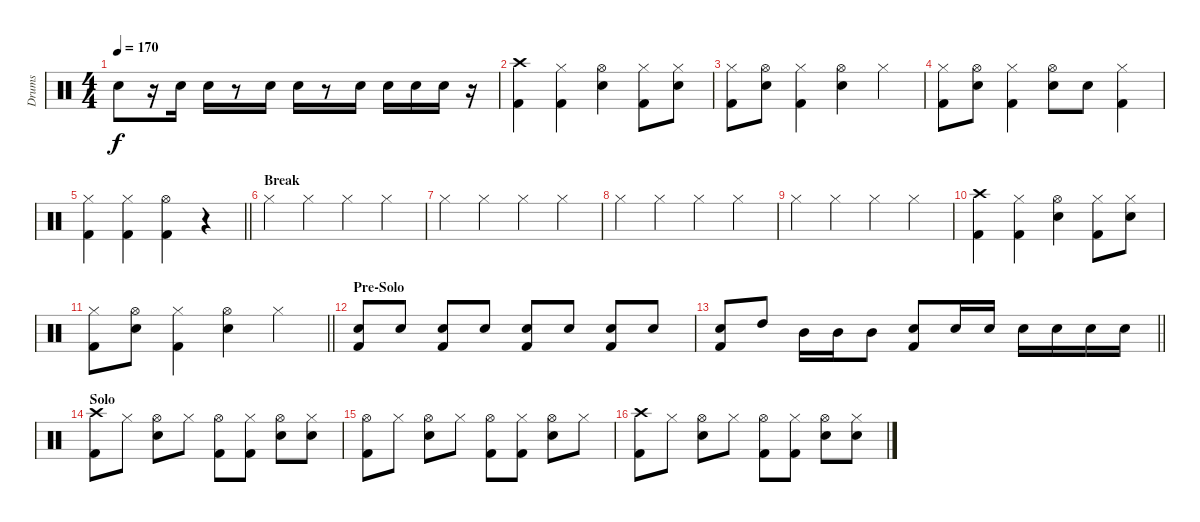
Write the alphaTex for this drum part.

\track ("Drums" "Drums") {instrument percussion}
\staff {score}
\articulation defaults
\ts (4 4)
\tempo 170
\clef neutral
\ks c "Electric Snare (hit)".8{dy f}
r.16 "Electric Snare (hit)".16 "Electric Snare (hit)".16 r.8 "Electric Snare (hit)".16 "Electric Snare (hit)".16 r.8 "Electric Snare (hit)".16 "Electric Snare (hit)".16 "Electric Snare (hit)".16 "Electric Snare (hit)".16 r.16 |
("Kick (hit) 2" "Crash high (hit)").4 ("Kick (hit) 2" "Hi-Hat (closed)").4 ("Electric Snare (hit)" "Hi-Hat (open)").4 ("Kick (hit) 2" "Hi-Hat (closed)").8 ("Electric Snare (hit)" "Hi-Hat (closed)").8 |
("Kick (hit) 2" "Hi-Hat (closed)").8 ("Electric Snare (hit)" "Hi-Hat (open)").8 ("Kick (hit) 2" "Hi-Hat (closed)").4 ("Electric Snare (hit)" "Hi-Hat (open)").4 "Hi-Hat (closed)".4 |
("Kick (hit) 2" "Hi-Hat (closed)").8 ("Electric Snare (hit)" "Hi-Hat (open)").8 ("Kick (hit) 2" "Hi-Hat (closed)").4 ("Electric Snare (hit)" "Hi-Hat (open)").8 "Electric Snare (hit)".8 ("Kick (hit) 2" "Hi-Hat (closed)").4 |
\barLineRight lightlight
("Kick (hit) 2" "Hi-Hat (closed)").4 ("Kick (hit) 2" "Hi-Hat (closed)").4 ("Kick (hit) 2" "Hi-Hat (open)").4 r.4 |
\section ("" "Break")
"Hi-Hat (closed)".4{volume 6} "Hi-Hat (closed)".4 "Hi-Hat (closed)".4 "Hi-Hat (closed)".4 |
"Hi-Hat (closed)".4 "Hi-Hat (closed)".4 "Hi-Hat (closed)".4 "Hi-Hat (closed)".4 |
"Hi-Hat (closed)".4 "Hi-Hat (closed)".4 "Hi-Hat (closed)".4 "Hi-Hat (closed)".4 |
"Hi-Hat (closed)".4 "Hi-Hat (closed)".4 "Hi-Hat (closed)".4 "Hi-Hat (closed)".4 |
("Kick (hit) 2" "Crash high (hit)").4{volume 16} ("Kick (hit) 2" "Hi-Hat (closed)").4 ("Electric Snare (hit)" "Hi-Hat (open)").4 ("Kick (hit) 2" "Hi-Hat (closed)").8 ("Electric Snare (hit)" "Hi-Hat (closed)").8 |
\barLineRight lightlight
("Kick (hit) 2" "Hi-Hat (closed)").8 ("Electric Snare (hit)" "Hi-Hat (open)").8 ("Kick (hit) 2" "Hi-Hat (closed)").4 ("Electric Snare (hit)" "Hi-Hat (open)").4 "Hi-Hat (closed)".4 |
\section ("" "Pre-Solo")
("Electric Snare (hit)" "Kick (hit) 2").8 "Electric Snare (hit)".8 ("Electric Snare (hit)" "Kick (hit) 2").8 "Electric Snare (hit)".8 ("Electric Snare (hit)" "Kick (hit) 2").8 "Electric Snare (hit)".8 ("Electric Snare (hit)" "Kick (hit) 2").8 "Electric Snare (hit)".8 |
\barLineRight lightlight
("Electric Snare (hit)" "Kick (hit) 2").8 "High Tom (hit)".8 "Mid Tom (hit)".16 "Mid Tom (hit)".16 "Mid Tom (hit)".8 ("Electric Snare (hit)" "Kick (hit) 2").8 "Electric Snare (hit)".16 "Electric Snare (hit)".16 "Electric Snare (hit)".16 "Electric Snare (hit)".16 "Electric Snare (hit)".16 "Electric Snare (hit)".16 |
\section ("" "Solo")
("Kick (hit) 2" "Crash high (hit)").8 "Hi-Hat (closed)".8 ("Electric Snare (hit)" "Hi-Hat (open)").8 "Hi-Hat (closed)".8 ("Kick (hit) 2" "Hi-Hat (open)").8 ("Kick (hit) 2" "Hi-Hat (closed)").8 ("Electric Snare (hit)" "Hi-Hat (open)").8 ("Electric Snare (hit)" "Hi-Hat (closed)").8 |
("Kick (hit) 2" "Hi-Hat (open)").8 "Hi-Hat (closed)".8 ("Electric Snare (hit)" "Hi-Hat (open)").8 "Hi-Hat (closed)".8 ("Kick (hit) 2" "Hi-Hat (open)").8 ("Kick (hit) 2" "Hi-Hat (closed)").8 ("Electric Snare (hit)" "Hi-Hat (open)").8 "Hi-Hat (closed)".8 |
("Kick (hit) 2" "Crash high (hit)").8 "Hi-Hat (closed)".8 ("Electric Snare (hit)" "Hi-Hat (open)").8 "Hi-Hat (closed)".8 ("Kick (hit) 2" "Hi-Hat (open)").8 ("Kick (hit) 2" "Hi-Hat (closed)").8 ("Electric Snare (hit)" "Hi-Hat (open)").8 ("Electric Snare (hit)" "Hi-Hat (closed)").8
